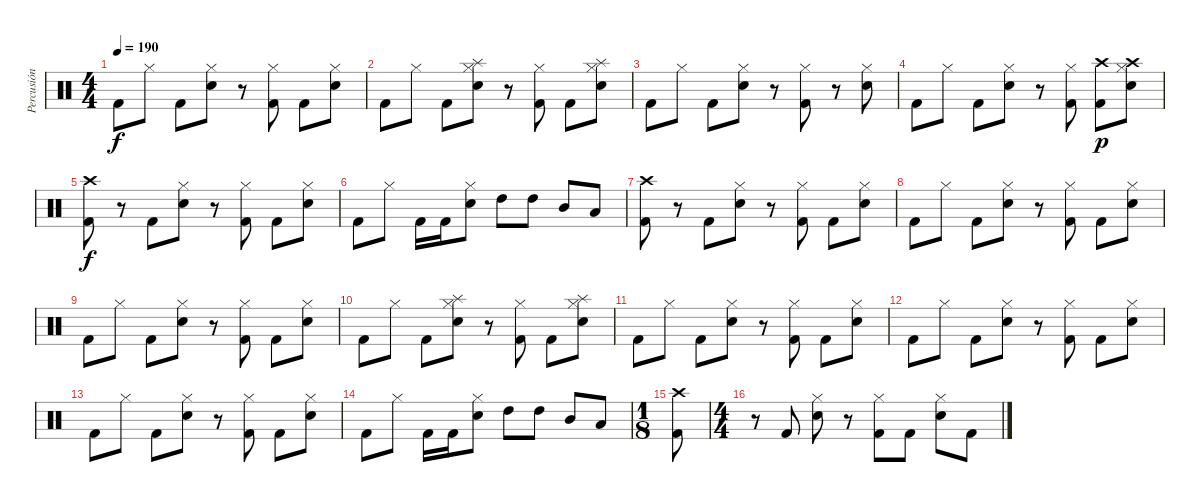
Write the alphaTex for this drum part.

\track ("Percusión" "Percusión") {instrument percussion}
\staff {score}
\articulation defaults
\ts (4 4)
\tempo 190
\clef neutral
\ks c "Kick (hit) 2".8{dy f} "Hi-Hat (closed)".8 "Kick (hit) 2".8
("Hi-Hat (closed)" "Snare (hit) 2").8 r.8 ("Hi-Hat (closed)" "Kick (hit) 2").8 "Kick (hit) 2".8 ("Hi-Hat (closed)" "Snare (hit) 2").8 |
"Kick (hit) 2".8 "Hi-Hat (closed)".8 "Kick (hit) 2".8 ("Hi-Hat (closed)" "Splash (hit)" "Snare (hit) 2").8 r.8 ("Hi-Hat (closed)" "Kick (hit) 2").8 "Kick (hit) 2".8 ("Hi-Hat (closed)" "Splash (hit)" "Snare (hit) 2").8 |
"Kick (hit) 2".8 "Hi-Hat (closed)".8 "Kick (hit) 2".8 ("Hi-Hat (closed)" "Snare (hit) 2").8 r.8 ("Hi-Hat (closed)" "Kick (hit) 2").8 r.8 ("Hi-Hat (closed)" "Snare (hit) 2").8 |
"Kick (hit) 2".8 "Hi-Hat (closed)".8 "Kick (hit) 2".8 ("Hi-Hat (closed)" "Snare (hit) 2").8 r.8 ("Hi-Hat (closed)" "Kick (hit) 2").8 ("Crash high (hit)" "Kick (hit) 2").8{dy p} ("Hi-Hat (closed)" "Crash high (hit)" "Snare (hit) 2").8 |
("Crash high (hit)" "Kick (hit) 2").8{dy f} r.8 "Kick (hit) 2".8 ("Hi-Hat (closed)" "Snare (hit) 2").8 r.8 ("Hi-Hat (closed)" "Kick (hit) 2").8 "Kick (hit) 2".8 ("Hi-Hat (closed)" "Snare (hit) 2").8 |
"Kick (hit) 2".8 "Hi-Hat (closed)".8 "Kick (hit) 2".16 "Kick (hit) 2".16 ("Hi-Hat (closed)" "Snare (hit) 2").8 "High Tom (hit)".8 "High Tom (hit)".8 "Mid Tom (hit)".8 "Low Tom (hit)".8 |
("Crash high (hit)" "Kick (hit) 2").8 r.8 "Kick (hit) 2".8 ("Hi-Hat (closed)" "Snare (hit) 2").8 r.8 ("Hi-Hat (closed)" "Kick (hit) 2").8 "Kick (hit) 2".8 ("Hi-Hat (closed)" "Snare (hit) 2").8 |
"Kick (hit) 2".8 "Hi-Hat (closed)".8 "Kick (hit) 2".8 ("Hi-Hat (closed)" "Snare (hit) 2").8 r.8 ("Hi-Hat (closed)" "Kick (hit) 2").8 "Kick (hit) 2".8 ("Hi-Hat (closed)" "Snare (hit) 2").8 |
"Kick (hit) 2".8 "Hi-Hat (closed)".8 "Kick (hit) 2".8 ("Hi-Hat (closed)" "Snare (hit) 2").8 r.8 ("Hi-Hat (closed)" "Kick (hit) 2").8 "Kick (hit) 2".8 ("Hi-Hat (closed)" "Snare (hit) 2").8 |
"Kick (hit) 2".8 "Hi-Hat (closed)".8 "Kick (hit) 2".8 ("Hi-Hat (closed)" "Splash (hit)" "Snare (hit) 2").8 r.8 ("Hi-Hat (closed)" "Kick (hit) 2").8 "Kick (hit) 2".8 ("Hi-Hat (closed)" "Splash (hit)" "Snare (hit) 2").8 |
"Kick (hit) 2".8 "Hi-Hat (closed)".8 "Kick (hit) 2".8 ("Hi-Hat (closed)" "Snare (hit) 2").8 r.8 ("Hi-Hat (closed)" "Kick (hit) 2").8 "Kick (hit) 2".8 ("Hi-Hat (closed)" "Snare (hit) 2").8 |
"Kick (hit) 2".8 "Hi-Hat (closed)".8 "Kick (hit) 2".8 ("Hi-Hat (closed)" "Snare (hit) 2").8 r.8 ("Hi-Hat (closed)" "Kick (hit) 2").8 "Kick (hit) 2".8 ("Hi-Hat (closed)" "Snare (hit) 2").8 |
"Kick (hit) 2".8 "Hi-Hat (closed)".8 "Kick (hit) 2".8 ("Hi-Hat (closed)" "Snare (hit) 2").8 r.8 ("Hi-Hat (closed)" "Kick (hit) 2").8 "Kick (hit) 2".8 ("Hi-Hat (closed)" "Snare (hit) 2").8 |
"Kick (hit) 2".8 "Hi-Hat (closed)".8 "Kick (hit) 2".16 "Kick (hit) 2".16 ("Hi-Hat (closed)" "Snare (hit) 2").8 "High Tom (hit)".8 "High Tom (hit)".8 "Mid Tom (hit)".8 "Low Tom (hit)".8 |
\ts (1 8)
("Crash high (hit)" "Kick (hit) 2").8 |
\ts (4 4)
r.8 "Kick (hit) 2".8 ("Hi-Hat (closed)" "Snare (hit) 2").8 r.8 ("Hi-Hat (closed)" "Kick (hit) 2").8 "Kick (hit) 2".8 ("Hi-Hat (closed)" "Snare (hit) 2").8 "Kick (hit) 2".8
